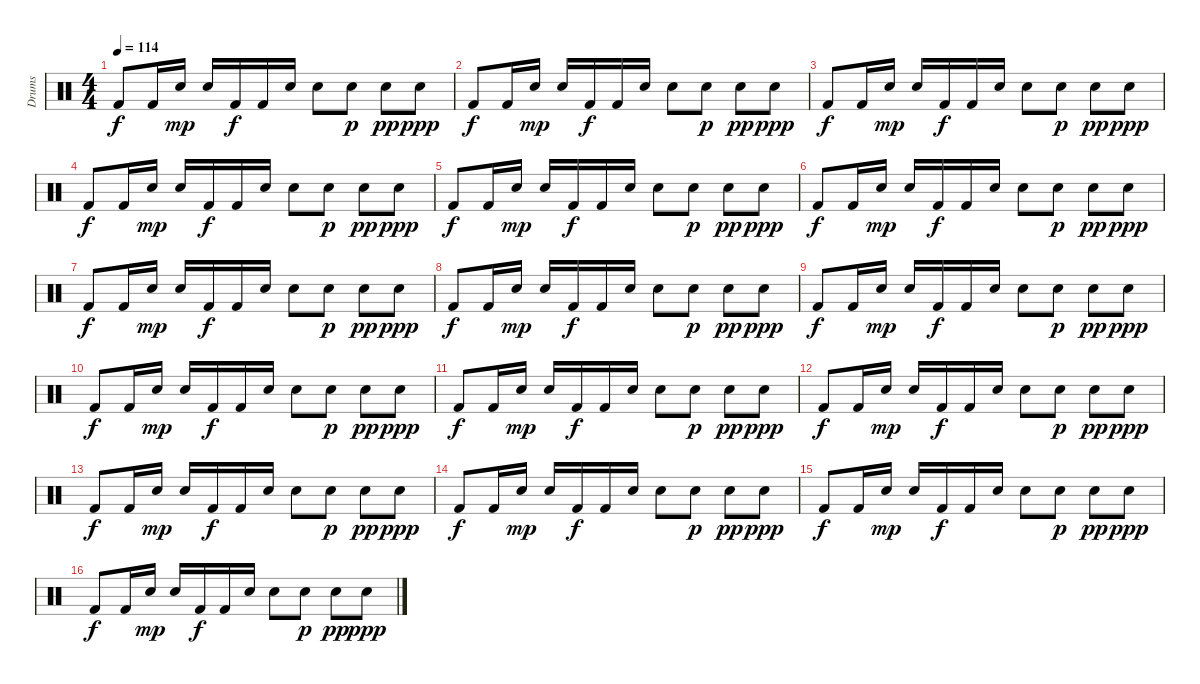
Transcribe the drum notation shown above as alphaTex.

\track ("Drums" "Drums") {instrument percussion}
\staff {score}
\articulation defaults
\ts (4 4)
\tempo 114
\clef neutral
\ks c "Kick (hit) 2".8{dy f} "Kick (hit) 2".16 "Electric Snare (hit)".16{dy mp} "Electric Snare (hit)".16 "Kick (hit) 2".16{dy f} "Kick (hit) 2".16 "Electric Snare (hit)".16 "Electric Snare (hit)".8 "Electric Snare (hit)".8{dy p} "Electric Snare (hit)".8{dy pp} "Electric Snare (hit)".8{dy ppp}
|
"Kick (hit) 2".8{dy f} "Kick (hit) 2".16 "Electric Snare (hit)".16{dy mp} "Electric Snare (hit)".16 "Kick (hit) 2".16{dy f} "Kick (hit) 2".16 "Electric Snare (hit)".16 "Electric Snare (hit)".8 "Electric Snare (hit)".8{dy p} "Electric Snare (hit)".8{dy pp} "Electric Snare (hit)".8{dy ppp} |
"Kick (hit) 2".8{dy f} "Kick (hit) 2".16 "Electric Snare (hit)".16{dy mp} "Electric Snare (hit)".16 "Kick (hit) 2".16{dy f} "Kick (hit) 2".16 "Electric Snare (hit)".16 "Electric Snare (hit)".8 "Electric Snare (hit)".8{dy p} "Electric Snare (hit)".8{dy pp} "Electric Snare (hit)".8{dy ppp} |
"Kick (hit) 2".8{dy f} "Kick (hit) 2".16 "Electric Snare (hit)".16{dy mp} "Electric Snare (hit)".16 "Kick (hit) 2".16{dy f} "Kick (hit) 2".16 "Electric Snare (hit)".16 "Electric Snare (hit)".8 "Electric Snare (hit)".8{dy p} "Electric Snare (hit)".8{dy pp} "Electric Snare (hit)".8{dy ppp} |
"Kick (hit) 2".8{dy f} "Kick (hit) 2".16 "Electric Snare (hit)".16{dy mp} "Electric Snare (hit)".16 "Kick (hit) 2".16{dy f} "Kick (hit) 2".16 "Electric Snare (hit)".16 "Electric Snare (hit)".8 "Electric Snare (hit)".8{dy p} "Electric Snare (hit)".8{dy pp} "Electric Snare (hit)".8{dy ppp} |
"Kick (hit) 2".8{dy f} "Kick (hit) 2".16 "Electric Snare (hit)".16{dy mp} "Electric Snare (hit)".16 "Kick (hit) 2".16{dy f} "Kick (hit) 2".16 "Electric Snare (hit)".16 "Electric Snare (hit)".8 "Electric Snare (hit)".8{dy p} "Electric Snare (hit)".8{dy pp} "Electric Snare (hit)".8{dy ppp} |
"Kick (hit) 2".8{dy f} "Kick (hit) 2".16 "Electric Snare (hit)".16{dy mp} "Electric Snare (hit)".16 "Kick (hit) 2".16{dy f} "Kick (hit) 2".16 "Electric Snare (hit)".16 "Electric Snare (hit)".8 "Electric Snare (hit)".8{dy p} "Electric Snare (hit)".8{dy pp} "Electric Snare (hit)".8{dy ppp} |
"Kick (hit) 2".8{dy f} "Kick (hit) 2".16 "Electric Snare (hit)".16{dy mp} "Electric Snare (hit)".16 "Kick (hit) 2".16{dy f} "Kick (hit) 2".16 "Electric Snare (hit)".16 "Electric Snare (hit)".8 "Electric Snare (hit)".8{dy p} "Electric Snare (hit)".8{dy pp} "Electric Snare (hit)".8{dy ppp} |
"Kick (hit) 2".8{dy f} "Kick (hit) 2".16 "Electric Snare (hit)".16{dy mp} "Electric Snare (hit)".16 "Kick (hit) 2".16{dy f} "Kick (hit) 2".16 "Electric Snare (hit)".16 "Electric Snare (hit)".8 "Electric Snare (hit)".8{dy p} "Electric Snare (hit)".8{dy pp} "Electric Snare (hit)".8{dy ppp} |
"Kick (hit) 2".8{dy f} "Kick (hit) 2".16 "Electric Snare (hit)".16{dy mp} "Electric Snare (hit)".16 "Kick (hit) 2".16{dy f} "Kick (hit) 2".16 "Electric Snare (hit)".16 "Electric Snare (hit)".8 "Electric Snare (hit)".8{dy p} "Electric Snare (hit)".8{dy pp} "Electric Snare (hit)".8{dy ppp} |
"Kick (hit) 2".8{dy f} "Kick (hit) 2".16 "Electric Snare (hit)".16{dy mp} "Electric Snare (hit)".16 "Kick (hit) 2".16{dy f} "Kick (hit) 2".16 "Electric Snare (hit)".16 "Electric Snare (hit)".8 "Electric Snare (hit)".8{dy p} "Electric Snare (hit)".8{dy pp} "Electric Snare (hit)".8{dy ppp} |
"Kick (hit) 2".8{dy f} "Kick (hit) 2".16 "Electric Snare (hit)".16{dy mp} "Electric Snare (hit)".16 "Kick (hit) 2".16{dy f} "Kick (hit) 2".16 "Electric Snare (hit)".16 "Electric Snare (hit)".8 "Electric Snare (hit)".8{dy p} "Electric Snare (hit)".8{dy pp} "Electric Snare (hit)".8{dy ppp} |
"Kick (hit) 2".8{dy f} "Kick (hit) 2".16 "Electric Snare (hit)".16{dy mp} "Electric Snare (hit)".16 "Kick (hit) 2".16{dy f} "Kick (hit) 2".16 "Electric Snare (hit)".16 "Electric Snare (hit)".8 "Electric Snare (hit)".8{dy p} "Electric Snare (hit)".8{dy pp} "Electric Snare (hit)".8{dy ppp} |
"Kick (hit) 2".8{dy f} "Kick (hit) 2".16 "Electric Snare (hit)".16{dy mp} "Electric Snare (hit)".16 "Kick (hit) 2".16{dy f} "Kick (hit) 2".16 "Electric Snare (hit)".16 "Electric Snare (hit)".8 "Electric Snare (hit)".8{dy p} "Electric Snare (hit)".8{dy pp} "Electric Snare (hit)".8{dy ppp} |
"Kick (hit) 2".8{dy f} "Kick (hit) 2".16 "Electric Snare (hit)".16{dy mp} "Electric Snare (hit)".16 "Kick (hit) 2".16{dy f} "Kick (hit) 2".16 "Electric Snare (hit)".16 "Electric Snare (hit)".8 "Electric Snare (hit)".8{dy p} "Electric Snare (hit)".8{dy pp} "Electric Snare (hit)".8{dy ppp} |
"Kick (hit) 2".8{dy f} "Kick (hit) 2".16 "Electric Snare (hit)".16{dy mp} "Electric Snare (hit)".16 "Kick (hit) 2".16{dy f} "Kick (hit) 2".16 "Electric Snare (hit)".16 "Electric Snare (hit)".8 "Electric Snare (hit)".8{dy p} "Electric Snare (hit)".8{dy pp} "Electric Snare (hit)".8{dy ppp}
